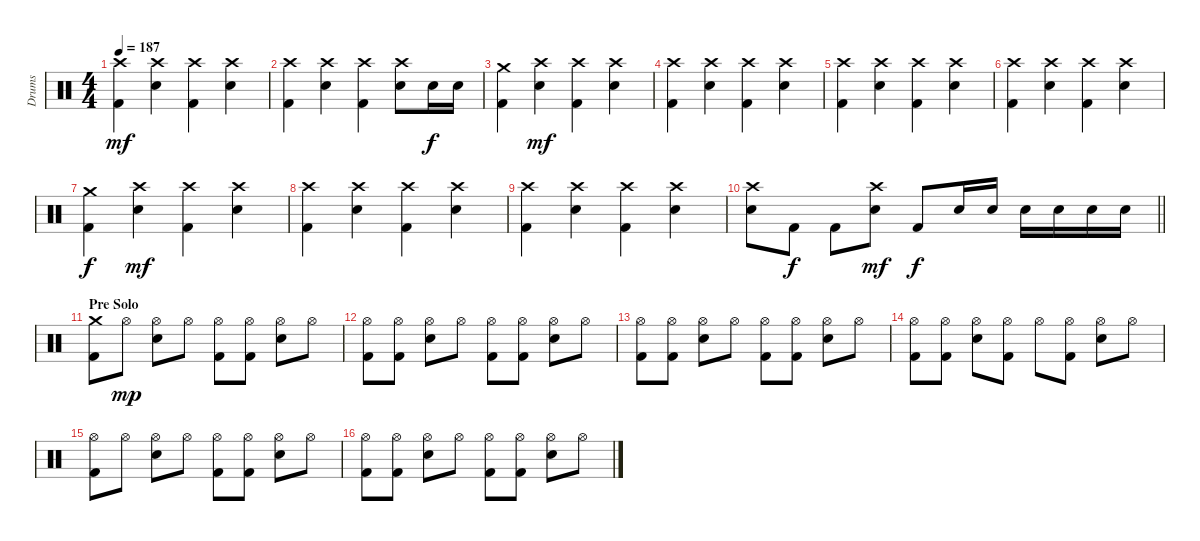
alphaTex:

\track ("Drums" "Drums") {instrument percussion}
\staff {score}
\articulation defaults
\ts (4 4)
\tempo 187
\clef neutral
\ks c
("Crash high (hit)" "Kick (hit) 2").4{dy mf} ("Crash high (hit)" "Snare (hit) 2").4 ("Crash high (hit)" "Kick (hit) 2").4 ("Crash high (hit)" "Snare (hit) 2").4 |
("Crash high (hit)" "Kick (hit) 2").4 ("Crash high (hit)" "Snare (hit) 2").4 ("Crash high (hit)" "Kick (hit) 2").4 ("Crash high (hit)" "Snare (hit) 2").8 "Snare (hit) 2".16{dy f} "Snare (hit) 2".16 |
("Crash medium (hit)" "Kick (hit) 2").4 ("Crash high (hit)" "Snare (hit) 2").4{dy mf} ("Crash high (hit)" "Kick (hit) 2").4 ("Crash high (hit)" "Snare (hit) 2").4 |
("Crash high (hit)" "Kick (hit) 2").4 ("Crash high (hit)" "Snare (hit) 2").4 ("Crash high (hit)" "Kick (hit) 2").4 ("Crash high (hit)" "Snare (hit) 2").4 |
("Crash high (hit)" "Kick (hit) 2").4 ("Crash high (hit)" "Snare (hit) 2").4 ("Crash high (hit)" "Kick (hit) 2").4 ("Crash high (hit)" "Snare (hit) 2").4 |
("Crash high (hit)" "Kick (hit) 2").4 ("Crash high (hit)" "Snare (hit) 2").4 ("Crash high (hit)" "Kick (hit) 2").4 ("Crash high (hit)" "Snare (hit) 2").4 |
("Crash medium (hit)" "Kick (hit) 2").4{dy f} ("Crash high (hit)" "Snare (hit) 2").4{dy mf} ("Crash high (hit)" "Kick (hit) 2").4 ("Crash high (hit)" "Snare (hit) 2").4 |
("Crash high (hit)" "Kick (hit) 2").4 ("Crash high (hit)" "Snare (hit) 2").4 ("Crash high (hit)" "Kick (hit) 2").4 ("Crash high (hit)" "Snare (hit) 2").4 |
("Crash high (hit)" "Kick (hit) 2").4 ("Crash high (hit)" "Snare (hit) 2").4 ("Crash high (hit)" "Kick (hit) 2").4 ("Crash high (hit)" "Snare (hit) 2").4 |
\barLineRight lightlight
("Crash high (hit)" "Snare (hit) 2").8 "Kick (hit) 2".8{dy f} "Kick (hit) 2".8 ("Crash high (hit)" "Snare (hit) 2").8{dy mf} "Kick (hit) 2".8{dy f} "Snare (hit) 2".16 "Snare (hit) 2".16 "Snare (hit) 2".16 "Snare (hit) 2".16 "Snare (hit) 2".16 "Snare (hit) 2".16 |
\section ("" "Pre Solo")
("Crash medium (hit)" "Kick (hit) 2").8 "Hi-Hat (open)".8{dy mp} ("Hi-Hat (open)" "Snare (hit) 2").8 "Hi-Hat (open)".8 ("Hi-Hat (open)" "Kick (hit) 2").8 ("Hi-Hat (open)" "Kick (hit) 2").8 ("Hi-Hat (open)" "Snare (hit) 2").8 "Hi-Hat (open)".8 |
("Hi-Hat (open)" "Kick (hit) 2").8 ("Hi-Hat (open)" "Kick (hit) 2").8 ("Hi-Hat (open)" "Snare (hit) 2").8 "Hi-Hat (open)".8 ("Hi-Hat (open)" "Kick (hit) 2").8 ("Hi-Hat (open)" "Kick (hit) 2").8 ("Hi-Hat (open)" "Snare (hit) 2").8 "Hi-Hat (open)".8 |
("Hi-Hat (open)" "Kick (hit) 2").8 ("Hi-Hat (open)" "Kick (hit) 2").8 ("Hi-Hat (open)" "Snare (hit) 2").8 "Hi-Hat (open)".8 ("Hi-Hat (open)" "Kick (hit) 2").8 ("Hi-Hat (open)" "Kick (hit) 2").8 ("Hi-Hat (open)" "Snare (hit) 2").8 "Hi-Hat (open)".8 |
("Hi-Hat (open)" "Kick (hit) 2").8 ("Hi-Hat (open)" "Kick (hit) 2").8 ("Hi-Hat (open)" "Snare (hit) 2").8 ("Hi-Hat (open)" "Kick (hit) 2").8 "Hi-Hat (open)".8 ("Hi-Hat (open)" "Kick (hit) 2").8 ("Hi-Hat (open)" "Snare (hit) 2").8 "Hi-Hat (open)".8 |
("Hi-Hat (open)" "Kick (hit) 2").8 "Hi-Hat (open)".8 ("Hi-Hat (open)" "Snare (hit) 2").8 "Hi-Hat (open)".8 ("Hi-Hat (open)" "Kick (hit) 2").8 ("Hi-Hat (open)" "Kick (hit) 2").8 ("Hi-Hat (open)" "Snare (hit) 2").8 "Hi-Hat (open)".8 |
("Hi-Hat (open)" "Kick (hit) 2").8 ("Hi-Hat (open)" "Kick (hit) 2").8 ("Hi-Hat (open)" "Snare (hit) 2").8 "Hi-Hat (open)".8 ("Hi-Hat (open)" "Kick (hit) 2").8 ("Hi-Hat (open)" "Kick (hit) 2").8 ("Hi-Hat (open)" "Snare (hit) 2").8 "Hi-Hat (open)".8
